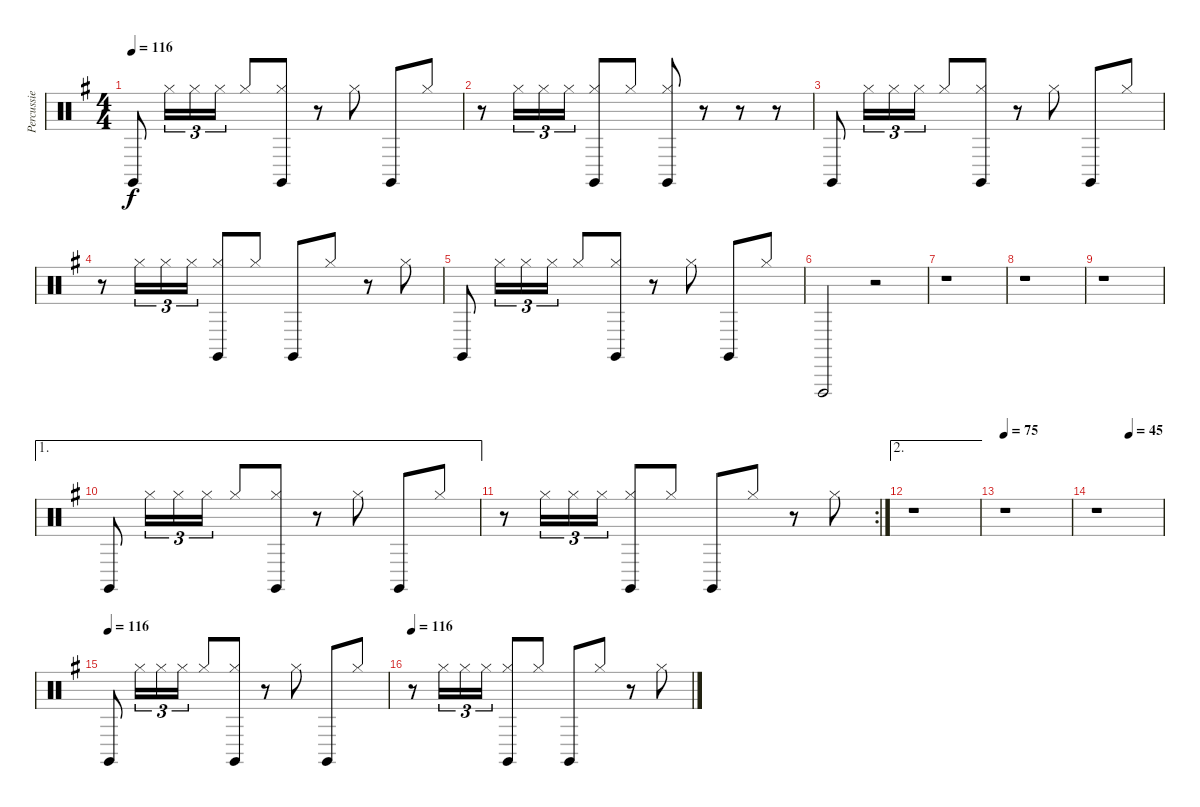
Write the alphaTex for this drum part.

\track ("Percussie" "Percussie") {instrument percussion}
\staff {score}
\articulation defaults
\ts (4 4)
\tempo 116
\clef neutral
\ks g "Claves (hit)".8{dy f} "Hi-Hat (closed)".16{tu (3 2)} "Hi-Hat (closed)".16{tu (3 2)} "Hi-Hat (closed)".16{tu (3 2)} "Hi-Hat (closed)".8
("Hi-Hat (closed)" "Claves (hit)").8 r.8 "Hi-Hat (closed)".8 "Claves (hit)".8 "Hi-Hat (closed)".8 |
r.8 "Hi-Hat (closed)".16{tu (3 2)} "Hi-Hat (closed)".16{tu (3 2)} "Hi-Hat (closed)".16{tu (3 2)} ("Hi-Hat (closed)" "Claves (hit)").8 "Hi-Hat (closed)".8 ("Hi-Hat (closed)" "Claves (hit)").8 r.8 r.8 r.8 |
"Claves (hit)".8 "Hi-Hat (closed)".16{tu (3 2)} "Hi-Hat (closed)".16{tu (3 2)} "Hi-Hat (closed)".16{tu (3 2)} "Hi-Hat (closed)".8 ("Hi-Hat (closed)" "Claves (hit)").8 r.8 "Hi-Hat (closed)".8 "Claves (hit)".8 "Hi-Hat (closed)".8 |
r.8 "Hi-Hat (closed)".16{tu (3 2)} "Hi-Hat (closed)".16{tu (3 2)} "Hi-Hat (closed)".16{tu (3 2)} ("Hi-Hat (closed)" "Claves (hit)").8 "Hi-Hat (closed)".8 "Claves (hit)".8 "Hi-Hat (closed)".8 r.8 "Hi-Hat (closed)".8 |
"Claves (hit)".8 "Hi-Hat (closed)".16{tu (3 2)} "Hi-Hat (closed)".16{tu (3 2)} "Hi-Hat (closed)".16{tu (3 2)} "Hi-Hat (closed)".8 ("Hi-Hat (closed)" "Claves (hit)").8 r.8 "Hi-Hat (closed)".8 "Claves (hit)".8 "Hi-Hat (closed)".8 |
"Vibraslap (hit)".2 r.2 |
r.1 |
r.1 |
r.1 |
\ae 1 "Claves (hit)".8 "Hi-Hat (closed)".16{tu (3 2)} "Hi-Hat (closed)".16{tu (3 2)} "Hi-Hat (closed)".16{tu (3 2)} "Hi-Hat (closed)".8
("Hi-Hat (closed)" "Claves (hit)").8 r.8 "Hi-Hat (closed)".8 "Claves (hit)".8 "Hi-Hat (closed)".8 |
\rc 2
r.8 "Hi-Hat (closed)".16{tu (3 2)} "Hi-Hat (closed)".16{tu (3 2)} "Hi-Hat (closed)".16{tu (3 2)} ("Hi-Hat (closed)" "Claves (hit)").8 "Hi-Hat (closed)".8 "Claves (hit)".8 "Hi-Hat (closed)".8 r.8 "Hi-Hat (closed)".8 |
\ae 2
r.1 |
\tempo 75
r.1 |
\tempo (45 0.5)
r.1 |
\tempo (116)
"Claves (hit)".8 "Hi-Hat (closed)".16{tu (3 2)} "Hi-Hat (closed)".16{tu (3 2)} "Hi-Hat (closed)".16{tu (3 2)} "Hi-Hat (closed)".8 ("Hi-Hat (closed)" "Claves (hit)").8 r.8 "Hi-Hat (closed)".8 "Claves (hit)".8 "Hi-Hat (closed)".8 |
\tempo 116
r.8 "Hi-Hat (closed)".16{tu (3 2)} "Hi-Hat (closed)".16{tu (3 2)} "Hi-Hat (closed)".16{tu (3 2)} ("Hi-Hat (closed)" "Claves (hit)").8 "Hi-Hat (closed)".8 "Claves (hit)".8 "Hi-Hat (closed)".8 r.8 "Hi-Hat (closed)".8
